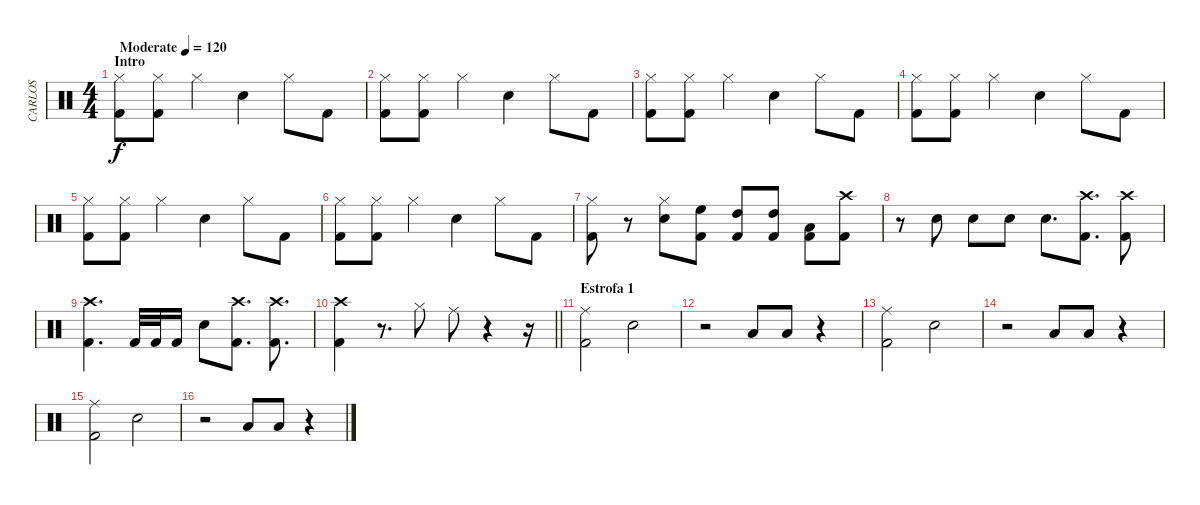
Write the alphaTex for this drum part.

\track ("CARLOS" "CARLOS") {instrument percussion}
\staff {score}
\articulation defaults
\ts (4 4)
\section ("" "Intro")
\tempo (120 "Moderate")
\clef neutral
\ks c
("Kick (hit) 2" "Hi-Hat (closed)").8{dy f} ("Kick (hit) 2" "Hi-Hat (closed)").8 "Hi-Hat (closed)".4 "Electric Snare (hit)".4 "Hi-Hat (closed)".8 "Kick (hit) 2".8 |
("Kick (hit) 2" "Hi-Hat (closed)").8 ("Kick (hit) 2" "Hi-Hat (closed)").8 "Hi-Hat (closed)".4 "Electric Snare (hit)".4 "Hi-Hat (closed)".8 "Kick (hit) 2".8 |
("Kick (hit) 2" "Hi-Hat (closed)").8 ("Kick (hit) 2" "Hi-Hat (closed)").8 "Hi-Hat (closed)".4 "Electric Snare (hit)".4 "Hi-Hat (closed)".8 "Kick (hit) 2".8 |
("Kick (hit) 2" "Hi-Hat (closed)").8 ("Kick (hit) 2" "Hi-Hat (closed)").8 "Hi-Hat (closed)".4 "Electric Snare (hit)".4 "Hi-Hat (closed)".8 "Kick (hit) 2".8 |
("Kick (hit) 2" "Hi-Hat (closed)").8 ("Kick (hit) 2" "Hi-Hat (closed)").8 "Hi-Hat (closed)".4 "Electric Snare (hit)".4 "Hi-Hat (closed)".8 "Kick (hit) 2".8 |
("Kick (hit) 2" "Hi-Hat (closed)").8 ("Kick (hit) 2" "Hi-Hat (closed)").8 "Hi-Hat (closed)".4 "Electric Snare (hit)".4 "Hi-Hat (closed)".8 "Kick (hit) 2".8 |
("Kick (hit) 2" "Hi-Hat (closed)").8 r.8 ("Hi-Hat (closed)" "Electric Snare (hit)").8 ("High Floor Tom (hit)" "Kick (hit) 2").8 ("Kick (hit) 2" "High Tom (hit)").8 ("Kick (hit) 2" "High Tom (hit)").8 ("Low Tom (hit)" "Kick (hit) 2").8 ("Kick (hit) 2" "Crash high (hit)").8 |
r.8 "Electric Snare (hit)".8 "Electric Snare (hit)".8 "Electric Snare (hit)".8 "Electric Snare (hit)".8{d} ("Crash high (hit)" "Kick (hit) 2").8{d} ("Crash high (hit)" "Kick (hit) 2").8 |
("Kick (hit) 2" "Crash high (hit)").4{d} "Kick (hit) 2".32 "Kick (hit) 2".32 "Kick (hit) 2".16 "Electric Snare (hit)".8 ("Crash high (hit)" "Kick (hit) 2").8{d} ("Kick (hit) 2" "Crash high (hit)").8{d} |
\barLineRight lightlight
("Crash high (hit)" "Kick (hit) 2").4 r.8{d} "Hi-Hat (closed)".8 "Ride (middle)".8 r.4 r.16 |
\section ("" "Estrofa 1")
("Kick (hit) 2" "Ride (middle)").2 "Electric Snare (hit)".2 |
r.2 "Low Tom (hit)".8 "Low Tom (hit)".8 r.4 |
("Ride (middle)" "Kick (hit) 2").2 "Electric Snare (hit)".2 |
r.2 "Low Tom (hit)".8 "Low Tom (hit)".8 r.4 |
("Ride (middle)" "Kick (hit) 2").2 "Electric Snare (hit)".2 |
r.2 "Low Tom (hit)".8 "Low Tom (hit)".8 r.4
